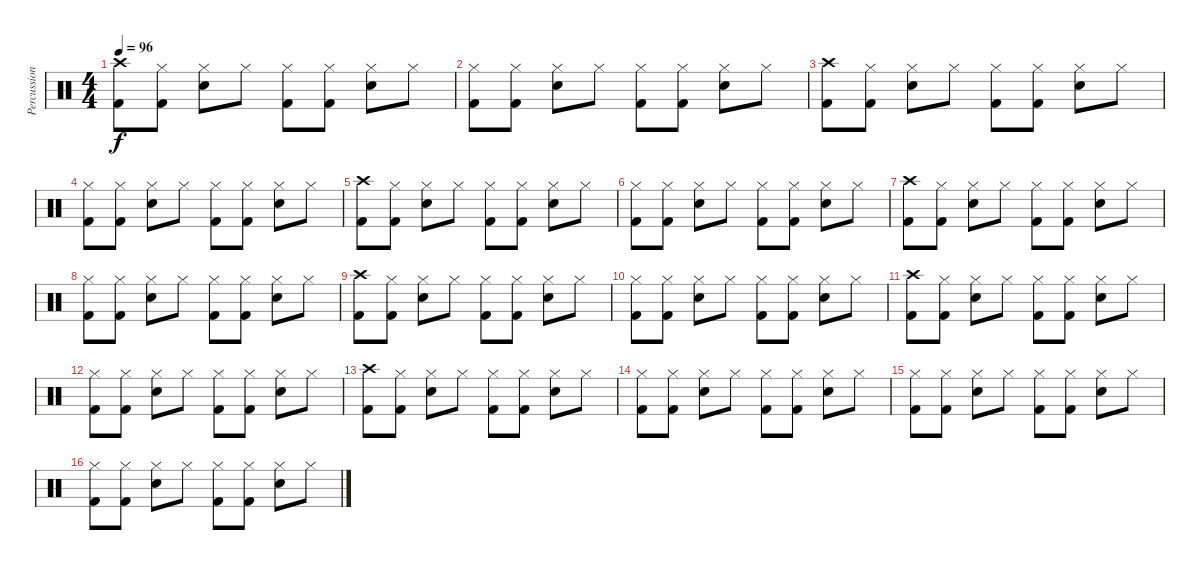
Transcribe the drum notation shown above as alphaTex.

\track ("Percussions" "Percussion") {instrument percussion}
\staff {score}
\articulation defaults
\ts (4 4)
\tempo 96
\clef neutral
\ks c
("Crash high (hit)" "Kick (hit) 2").8{dy f} ("Hi-Hat (closed)" "Kick (hit) 2").8 ("Hi-Hat (closed)" "Snare (hit) 2").8 "Hi-Hat (closed)".8 ("Hi-Hat (closed)" "Kick (hit) 2").8 ("Hi-Hat (closed)" "Kick (hit) 2").8 ("Hi-Hat (closed)" "Snare (hit) 2").8 "Hi-Hat (closed)".8 |
("Hi-Hat (closed)" "Kick (hit) 2").8 ("Hi-Hat (closed)" "Kick (hit) 2").8 ("Hi-Hat (closed)" "Snare (hit) 2").8 "Hi-Hat (closed)".8 ("Hi-Hat (closed)" "Kick (hit) 2").8 ("Hi-Hat (closed)" "Kick (hit) 2").8 ("Hi-Hat (closed)" "Snare (hit) 2").8 "Hi-Hat (closed)".8 |
("Crash high (hit)" "Kick (hit) 2").8 ("Hi-Hat (closed)" "Kick (hit) 2").8 ("Hi-Hat (closed)" "Snare (hit) 2").8 "Hi-Hat (closed)".8 ("Hi-Hat (closed)" "Kick (hit) 2").8 ("Hi-Hat (closed)" "Kick (hit) 2").8 ("Hi-Hat (closed)" "Snare (hit) 2").8 "Hi-Hat (closed)".8 |
("Hi-Hat (closed)" "Kick (hit) 2").8 ("Hi-Hat (closed)" "Kick (hit) 2").8 ("Hi-Hat (closed)" "Snare (hit) 2").8 "Hi-Hat (closed)".8 ("Hi-Hat (closed)" "Kick (hit) 2").8 ("Hi-Hat (closed)" "Kick (hit) 2").8 ("Hi-Hat (closed)" "Snare (hit) 2").8 "Hi-Hat (closed)".8 |
("Crash high (hit)" "Kick (hit) 2").8 ("Hi-Hat (closed)" "Kick (hit) 2").8 ("Hi-Hat (closed)" "Snare (hit) 2").8 "Hi-Hat (closed)".8 ("Hi-Hat (closed)" "Kick (hit) 2").8 ("Hi-Hat (closed)" "Kick (hit) 2").8 ("Hi-Hat (closed)" "Snare (hit) 2").8 "Hi-Hat (closed)".8 |
("Hi-Hat (closed)" "Kick (hit) 2").8 ("Hi-Hat (closed)" "Kick (hit) 2").8 ("Hi-Hat (closed)" "Snare (hit) 2").8 "Hi-Hat (closed)".8 ("Hi-Hat (closed)" "Kick (hit) 2").8 ("Hi-Hat (closed)" "Kick (hit) 2").8 ("Hi-Hat (closed)" "Snare (hit) 2").8 "Hi-Hat (closed)".8 |
("Crash high (hit)" "Kick (hit) 2").8 ("Hi-Hat (closed)" "Kick (hit) 2").8 ("Hi-Hat (closed)" "Snare (hit) 2").8 "Hi-Hat (closed)".8 ("Hi-Hat (closed)" "Kick (hit) 2").8 ("Hi-Hat (closed)" "Kick (hit) 2").8 ("Hi-Hat (closed)" "Snare (hit) 2").8 "Hi-Hat (closed)".8 |
("Hi-Hat (closed)" "Kick (hit) 2").8 ("Hi-Hat (closed)" "Kick (hit) 2").8 ("Hi-Hat (closed)" "Snare (hit) 2").8 "Hi-Hat (closed)".8 ("Hi-Hat (closed)" "Kick (hit) 2").8 ("Hi-Hat (closed)" "Kick (hit) 2").8 ("Hi-Hat (closed)" "Snare (hit) 2").8 "Hi-Hat (closed)".8 |
("Crash high (hit)" "Kick (hit) 2").8 ("Hi-Hat (closed)" "Kick (hit) 2").8 ("Hi-Hat (closed)" "Snare (hit) 2").8 "Hi-Hat (closed)".8 ("Hi-Hat (closed)" "Kick (hit) 2").8 ("Hi-Hat (closed)" "Kick (hit) 2").8 ("Hi-Hat (closed)" "Snare (hit) 2").8 "Hi-Hat (closed)".8 |
("Hi-Hat (closed)" "Kick (hit) 2").8 ("Hi-Hat (closed)" "Kick (hit) 2").8 ("Hi-Hat (closed)" "Snare (hit) 2").8 "Hi-Hat (closed)".8 ("Hi-Hat (closed)" "Kick (hit) 2").8 ("Hi-Hat (closed)" "Kick (hit) 2").8 ("Hi-Hat (closed)" "Snare (hit) 2").8 "Hi-Hat (closed)".8 |
("Crash high (hit)" "Kick (hit) 2").8 ("Hi-Hat (closed)" "Kick (hit) 2").8 ("Hi-Hat (closed)" "Snare (hit) 2").8 "Hi-Hat (closed)".8 ("Hi-Hat (closed)" "Kick (hit) 2").8 ("Hi-Hat (closed)" "Kick (hit) 2").8 ("Hi-Hat (closed)" "Snare (hit) 2").8 "Hi-Hat (closed)".8 |
("Hi-Hat (closed)" "Kick (hit) 2").8 ("Hi-Hat (closed)" "Kick (hit) 2").8 ("Hi-Hat (closed)" "Snare (hit) 2").8 "Hi-Hat (closed)".8 ("Hi-Hat (closed)" "Kick (hit) 2").8 ("Hi-Hat (closed)" "Kick (hit) 2").8 ("Hi-Hat (closed)" "Snare (hit) 2").8 "Hi-Hat (closed)".8 |
("Crash high (hit)" "Kick (hit) 2").8 ("Hi-Hat (closed)" "Kick (hit) 2").8 ("Hi-Hat (closed)" "Snare (hit) 2").8 "Hi-Hat (closed)".8 ("Hi-Hat (closed)" "Kick (hit) 2").8 ("Hi-Hat (closed)" "Kick (hit) 2").8 ("Hi-Hat (closed)" "Snare (hit) 2").8 "Hi-Hat (closed)".8 |
("Hi-Hat (closed)" "Kick (hit) 2").8 ("Hi-Hat (closed)" "Kick (hit) 2").8 ("Hi-Hat (closed)" "Snare (hit) 2").8 "Hi-Hat (closed)".8 ("Hi-Hat (closed)" "Kick (hit) 2").8 ("Hi-Hat (closed)" "Kick (hit) 2").8 ("Hi-Hat (closed)" "Snare (hit) 2").8 "Hi-Hat (closed)".8 |
("Hi-Hat (closed)" "Kick (hit) 2").8 ("Hi-Hat (closed)" "Kick (hit) 2").8 ("Hi-Hat (closed)" "Snare (hit) 2").8 "Hi-Hat (closed)".8 ("Hi-Hat (closed)" "Kick (hit) 2").8 ("Hi-Hat (closed)" "Kick (hit) 2").8 ("Hi-Hat (closed)" "Snare (hit) 2").8 "Hi-Hat (closed)".8 |
("Hi-Hat (closed)" "Kick (hit) 2").8 ("Hi-Hat (closed)" "Kick (hit) 2").8 ("Hi-Hat (closed)" "Snare (hit) 2").8 "Hi-Hat (closed)".8 ("Hi-Hat (closed)" "Kick (hit) 2").8 ("Hi-Hat (closed)" "Kick (hit) 2").8 ("Hi-Hat (closed)" "Snare (hit) 2").8 "Hi-Hat (closed)".8
